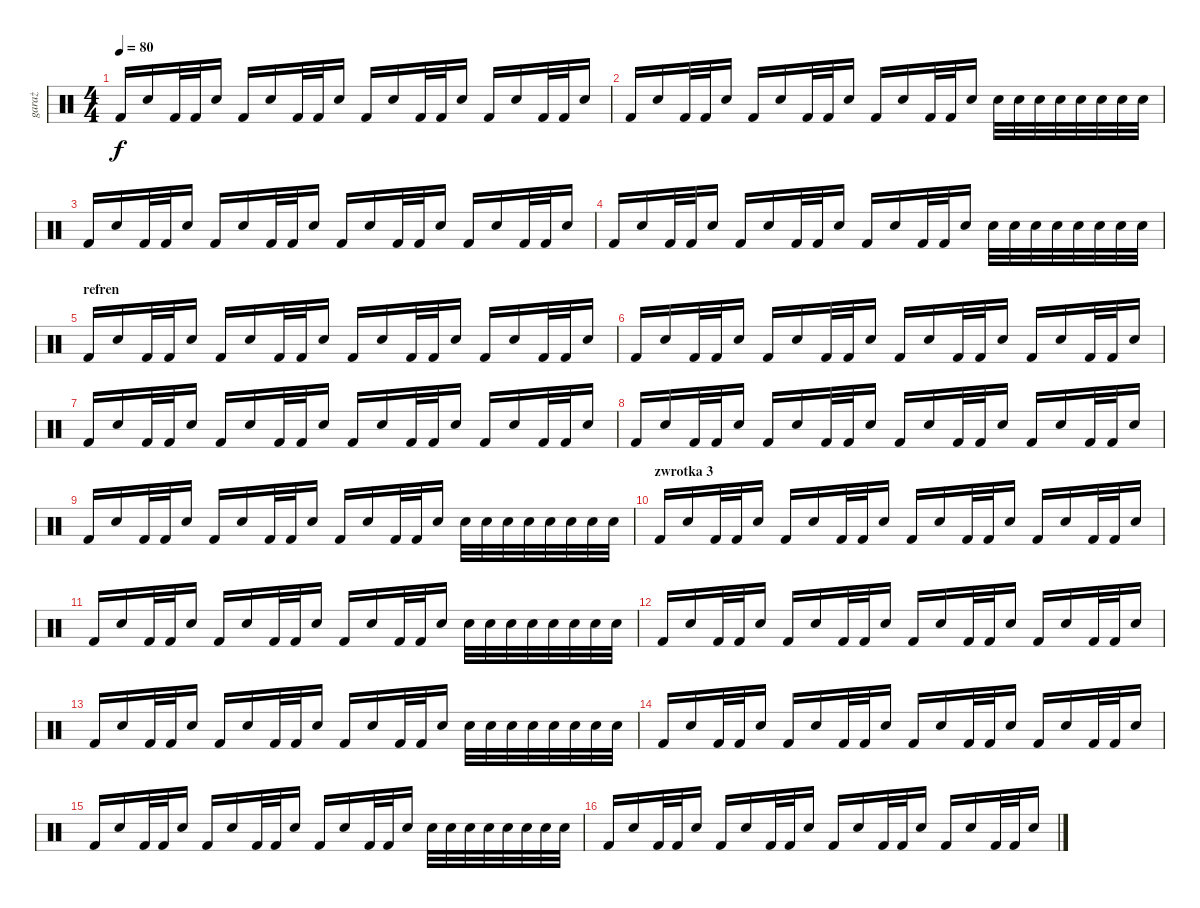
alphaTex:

\track ("garaż" "garaż") {instrument percussion}
\staff {score}
\articulation defaults
\ts (4 4)
\tempo 80
\clef neutral
\ks c "Kick (hit) 2".16{dy f} "Snare (hit) 2".16 "Kick (hit) 2".32 "Kick (hit) 2".32 "Snare (hit) 2".16 "Kick (hit) 2".16 "Snare (hit) 2".16 "Kick (hit) 2".32 "Kick (hit) 2".32 "Snare (hit) 2".16 "Kick (hit) 2".16 "Snare (hit) 2".16 "Kick (hit) 2".32 "Kick (hit) 2".32 "Snare (hit) 2".16 "Kick (hit) 2".16 "Snare (hit) 2".16 "Kick (hit) 2".32 "Kick (hit) 2".32 "Snare (hit) 2".16
|
"Kick (hit) 2".16 "Snare (hit) 2".16 "Kick (hit) 2".32 "Kick (hit) 2".32 "Snare (hit) 2".16 "Kick (hit) 2".16 "Snare (hit) 2".16 "Kick (hit) 2".32 "Kick (hit) 2".32 "Snare (hit) 2".16 "Kick (hit) 2".16 "Snare (hit) 2".16 "Kick (hit) 2".32 "Kick (hit) 2".32 "Snare (hit) 2".16 "Snare (hit) 2".32 "Snare (hit) 2".32 "Snare (hit) 2".32 "Snare (hit) 2".32 "Snare (hit) 2".32 "Snare (hit) 2".32 "Snare (hit) 2".32 "Snare (hit) 2".32 |
"Kick (hit) 2".16 "Snare (hit) 2".16 "Kick (hit) 2".32 "Kick (hit) 2".32 "Snare (hit) 2".16 "Kick (hit) 2".16 "Snare (hit) 2".16 "Kick (hit) 2".32 "Kick (hit) 2".32 "Snare (hit) 2".16 "Kick (hit) 2".16 "Snare (hit) 2".16 "Kick (hit) 2".32 "Kick (hit) 2".32 "Snare (hit) 2".16 "Kick (hit) 2".16 "Snare (hit) 2".16 "Kick (hit) 2".32 "Kick (hit) 2".32 "Snare (hit) 2".16 |
"Kick (hit) 2".16 "Snare (hit) 2".16 "Kick (hit) 2".32 "Kick (hit) 2".32 "Snare (hit) 2".16 "Kick (hit) 2".16 "Snare (hit) 2".16 "Kick (hit) 2".32 "Kick (hit) 2".32 "Snare (hit) 2".16 "Kick (hit) 2".16 "Snare (hit) 2".16 "Kick (hit) 2".32 "Kick (hit) 2".32 "Snare (hit) 2".16 "Snare (hit) 2".32 "Snare (hit) 2".32 "Snare (hit) 2".32 "Snare (hit) 2".32 "Snare (hit) 2".32 "Snare (hit) 2".32 "Snare (hit) 2".32 "Snare (hit) 2".32 |
\section ("" "refren")
"Kick (hit) 2".16 "Snare (hit) 2".16 "Kick (hit) 2".32 "Kick (hit) 2".32 "Snare (hit) 2".16 "Kick (hit) 2".16 "Snare (hit) 2".16 "Kick (hit) 2".32 "Kick (hit) 2".32 "Snare (hit) 2".16 "Kick (hit) 2".16 "Snare (hit) 2".16 "Kick (hit) 2".32 "Kick (hit) 2".32 "Snare (hit) 2".16 "Kick (hit) 2".16 "Snare (hit) 2".16 "Kick (hit) 2".32 "Kick (hit) 2".32 "Snare (hit) 2".16 |
"Kick (hit) 2".16 "Snare (hit) 2".16 "Kick (hit) 2".32 "Kick (hit) 2".32 "Snare (hit) 2".16 "Kick (hit) 2".16 "Snare (hit) 2".16 "Kick (hit) 2".32 "Kick (hit) 2".32 "Snare (hit) 2".16 "Kick (hit) 2".16 "Snare (hit) 2".16 "Kick (hit) 2".32 "Kick (hit) 2".32 "Snare (hit) 2".16 "Kick (hit) 2".16 "Snare (hit) 2".16 "Kick (hit) 2".32 "Kick (hit) 2".32 "Snare (hit) 2".16 |
"Kick (hit) 2".16 "Snare (hit) 2".16 "Kick (hit) 2".32 "Kick (hit) 2".32 "Snare (hit) 2".16 "Kick (hit) 2".16 "Snare (hit) 2".16 "Kick (hit) 2".32 "Kick (hit) 2".32 "Snare (hit) 2".16 "Kick (hit) 2".16 "Snare (hit) 2".16 "Kick (hit) 2".32 "Kick (hit) 2".32 "Snare (hit) 2".16 "Kick (hit) 2".16 "Snare (hit) 2".16 "Kick (hit) 2".32 "Kick (hit) 2".32 "Snare (hit) 2".16 |
"Kick (hit) 2".16 "Snare (hit) 2".16 "Kick (hit) 2".32 "Kick (hit) 2".32 "Snare (hit) 2".16 "Kick (hit) 2".16 "Snare (hit) 2".16 "Kick (hit) 2".32 "Kick (hit) 2".32 "Snare (hit) 2".16 "Kick (hit) 2".16 "Snare (hit) 2".16 "Kick (hit) 2".32 "Kick (hit) 2".32 "Snare (hit) 2".16 "Kick (hit) 2".16 "Snare (hit) 2".16 "Kick (hit) 2".32 "Kick (hit) 2".32 "Snare (hit) 2".16 |
"Kick (hit) 2".16 "Snare (hit) 2".16 "Kick (hit) 2".32 "Kick (hit) 2".32 "Snare (hit) 2".16 "Kick (hit) 2".16 "Snare (hit) 2".16 "Kick (hit) 2".32 "Kick (hit) 2".32 "Snare (hit) 2".16 "Kick (hit) 2".16 "Snare (hit) 2".16 "Kick (hit) 2".32 "Kick (hit) 2".32 "Snare (hit) 2".16 "Snare (hit) 2".32 "Snare (hit) 2".32 "Snare (hit) 2".32 "Snare (hit) 2".32 "Snare (hit) 2".32 "Snare (hit) 2".32 "Snare (hit) 2".32 "Snare (hit) 2".32 |
\section ("" "zwrotka 3")
"Kick (hit) 2".16 "Snare (hit) 2".16 "Kick (hit) 2".32 "Kick (hit) 2".32 "Snare (hit) 2".16 "Kick (hit) 2".16 "Snare (hit) 2".16 "Kick (hit) 2".32 "Kick (hit) 2".32 "Snare (hit) 2".16 "Kick (hit) 2".16 "Snare (hit) 2".16 "Kick (hit) 2".32 "Kick (hit) 2".32 "Snare (hit) 2".16 "Kick (hit) 2".16 "Snare (hit) 2".16 "Kick (hit) 2".32 "Kick (hit) 2".32 "Snare (hit) 2".16 |
"Kick (hit) 2".16 "Snare (hit) 2".16 "Kick (hit) 2".32 "Kick (hit) 2".32 "Snare (hit) 2".16 "Kick (hit) 2".16 "Snare (hit) 2".16 "Kick (hit) 2".32 "Kick (hit) 2".32 "Snare (hit) 2".16 "Kick (hit) 2".16 "Snare (hit) 2".16 "Kick (hit) 2".32 "Kick (hit) 2".32 "Snare (hit) 2".16 "Snare (hit) 2".32 "Snare (hit) 2".32 "Snare (hit) 2".32 "Snare (hit) 2".32 "Snare (hit) 2".32 "Snare (hit) 2".32 "Snare (hit) 2".32 "Snare (hit) 2".32 |
"Kick (hit) 2".16 "Snare (hit) 2".16 "Kick (hit) 2".32 "Kick (hit) 2".32 "Snare (hit) 2".16 "Kick (hit) 2".16 "Snare (hit) 2".16 "Kick (hit) 2".32 "Kick (hit) 2".32 "Snare (hit) 2".16 "Kick (hit) 2".16 "Snare (hit) 2".16 "Kick (hit) 2".32 "Kick (hit) 2".32 "Snare (hit) 2".16 "Kick (hit) 2".16 "Snare (hit) 2".16 "Kick (hit) 2".32 "Kick (hit) 2".32 "Snare (hit) 2".16 |
"Kick (hit) 2".16 "Snare (hit) 2".16 "Kick (hit) 2".32 "Kick (hit) 2".32 "Snare (hit) 2".16 "Kick (hit) 2".16 "Snare (hit) 2".16 "Kick (hit) 2".32 "Kick (hit) 2".32 "Snare (hit) 2".16 "Kick (hit) 2".16 "Snare (hit) 2".16 "Kick (hit) 2".32 "Kick (hit) 2".32 "Snare (hit) 2".16 "Snare (hit) 2".32 "Snare (hit) 2".32 "Snare (hit) 2".32 "Snare (hit) 2".32 "Snare (hit) 2".32 "Snare (hit) 2".32 "Snare (hit) 2".32 "Snare (hit) 2".32 |
"Kick (hit) 2".16 "Snare (hit) 2".16 "Kick (hit) 2".32 "Kick (hit) 2".32 "Snare (hit) 2".16 "Kick (hit) 2".16 "Snare (hit) 2".16 "Kick (hit) 2".32 "Kick (hit) 2".32 "Snare (hit) 2".16 "Kick (hit) 2".16 "Snare (hit) 2".16 "Kick (hit) 2".32 "Kick (hit) 2".32 "Snare (hit) 2".16 "Kick (hit) 2".16 "Snare (hit) 2".16 "Kick (hit) 2".32 "Kick (hit) 2".32 "Snare (hit) 2".16 |
"Kick (hit) 2".16 "Snare (hit) 2".16 "Kick (hit) 2".32 "Kick (hit) 2".32 "Snare (hit) 2".16 "Kick (hit) 2".16 "Snare (hit) 2".16 "Kick (hit) 2".32 "Kick (hit) 2".32 "Snare (hit) 2".16 "Kick (hit) 2".16 "Snare (hit) 2".16 "Kick (hit) 2".32 "Kick (hit) 2".32 "Snare (hit) 2".16 "Snare (hit) 2".32 "Snare (hit) 2".32 "Snare (hit) 2".32 "Snare (hit) 2".32 "Snare (hit) 2".32 "Snare (hit) 2".32 "Snare (hit) 2".32 "Snare (hit) 2".32 |
"Kick (hit) 2".16 "Snare (hit) 2".16 "Kick (hit) 2".32 "Kick (hit) 2".32 "Snare (hit) 2".16 "Kick (hit) 2".16 "Snare (hit) 2".16 "Kick (hit) 2".32 "Kick (hit) 2".32 "Snare (hit) 2".16 "Kick (hit) 2".16 "Snare (hit) 2".16 "Kick (hit) 2".32 "Kick (hit) 2".32 "Snare (hit) 2".16 "Kick (hit) 2".16 "Snare (hit) 2".16 "Kick (hit) 2".32 "Kick (hit) 2".32 "Snare (hit) 2".16
